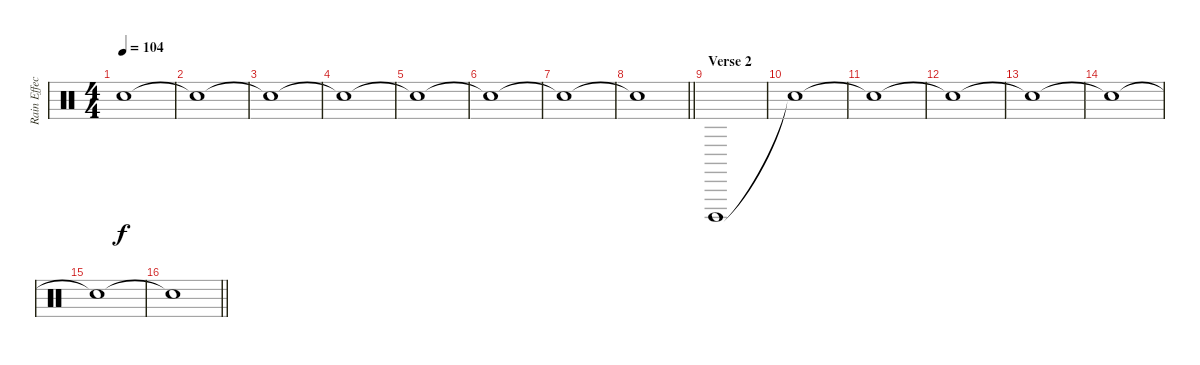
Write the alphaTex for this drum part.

\track ("Rain Effect" "Rain Effec") {instrument percussion}
\staff {score}
\articulation defaults
\ts (4 4)
\tempo 104
\clef neutral
\ks c "Snare (hit)"{t}.1{dy f}
|
"Snare (hit)"{t}.1 |
"Snare (hit)"{t}.1 |
"Snare (hit)"{t}.1 |
"Snare (hit)"{t}.1 |
"Snare (hit)"{t}.1 |
"Snare (hit)"{t}.1 |
\barLineRight lightlight "Snare (hit)"{t}.1
|
\section ("" "Verse 2")
"Cuica (open)".1 |
"Snare (hit)"{t}.1 |
"Snare (hit)"{t}.1 |
"Snare (hit)"{t}.1 |
"Snare (hit)"{t}.1 |
"Snare (hit)"{t}.1 |
"Snare (hit)"{t}.1 |
\barLineRight lightlight "Snare (hit)"{t}.1
